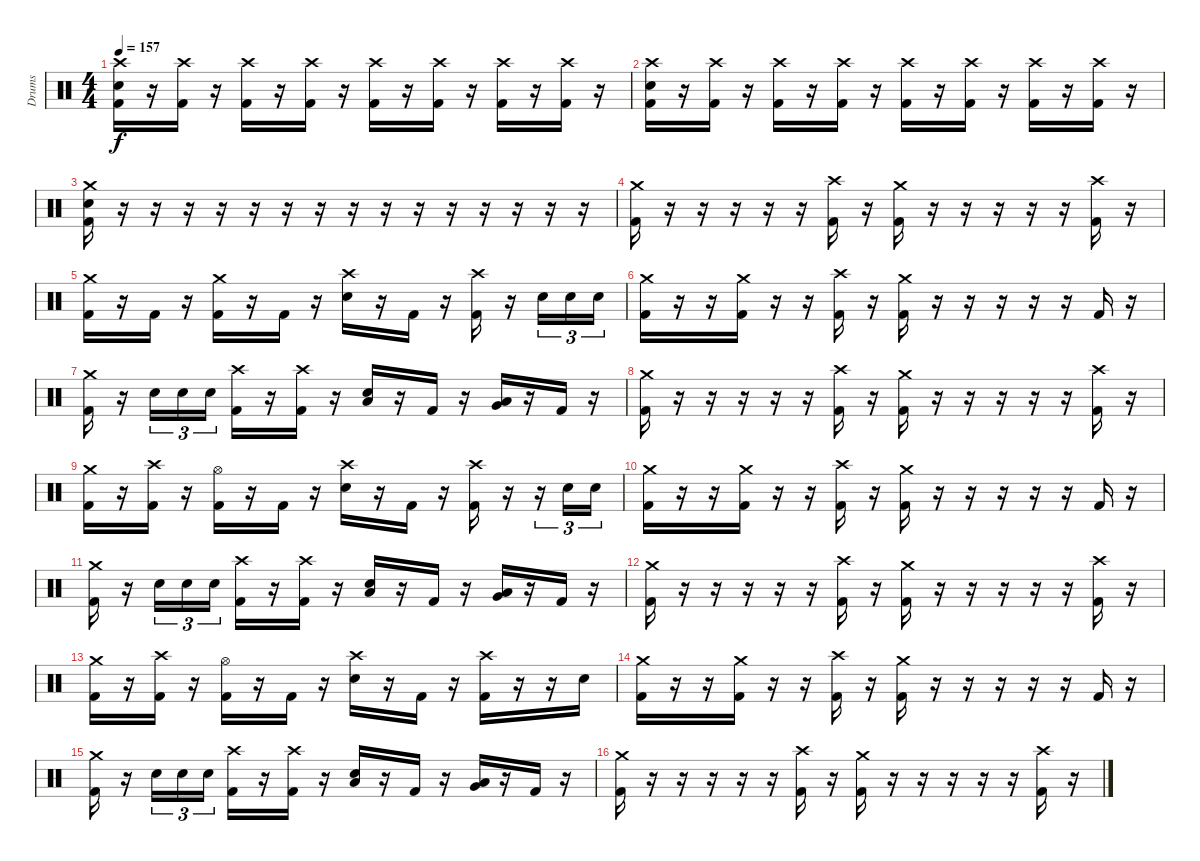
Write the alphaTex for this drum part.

\track ("Drums" "Drums") {instrument percussion}
\staff {score}
\articulation defaults
\ts (4 4)
\tempo 157
\clef neutral
\ks c
("Crash high (hit)" "Snare (hit) 2" "Kick (hit) 2").16{dy f} r.16 ("Crash high (hit)" "Kick (hit) 2").16 r.16 ("Crash high (hit)" "Kick (hit) 2").16 r.16 ("Crash high (hit)" "Kick (hit) 2").16 r.16 ("Crash high (hit)" "Kick (hit) 2").16 r.16 ("Crash high (hit)" "Kick (hit) 2").16 r.16 ("Crash high (hit)" "Kick (hit) 2").16 r.16 ("Crash high (hit)" "Kick (hit) 2").16 r.16 |
("Crash high (hit)" "Snare (hit) 2" "Kick (hit) 2").16 r.16 ("Crash high (hit)" "Kick (hit) 2").16 r.16 ("Crash high (hit)" "Kick (hit) 2").16 r.16 ("Crash high (hit)" "Kick (hit) 2").16 r.16 ("Crash high (hit)" "Kick (hit) 2").16 r.16 ("Crash high (hit)" "Kick (hit) 2").16 r.16 ("Crash high (hit)" "Kick (hit) 2").16 r.16 ("Crash high (hit)" "Kick (hit) 2").16 r.16 |
("Crash medium (hit)" "Snare (hit) 2" "Kick (hit) 2").16 r.16 r.16 r.16 r.16 r.16 r.16 r.16 r.16 r.16 r.16 r.16 r.16 r.16 r.16 r.16 |
("Crash medium (hit)" "Kick (hit) 2").16 r.16 r.16 r.16 r.16 r.16 ("Crash high (hit)" "Kick (hit) 2").16 r.16 ("Crash medium (hit)" "Kick (hit) 2").16 r.16 r.16 r.16 r.16 r.16 ("Crash high (hit)" "Kick (hit) 2").16 r.16 |
("Crash medium (hit)" "Kick (hit) 2").16 r.16 "Kick (hit) 2".16 r.16 ("Crash medium (hit)" "Kick (hit) 2").16 r.16 "Kick (hit) 2".16 r.16 ("Crash high (hit)" "Snare (hit) 2").16 r.16 "Kick (hit) 2".16 r.16 ("Crash high (hit)" "Kick (hit) 2").16 r.16 "Snare (hit) 2".16{tu (3 2)} "Snare (hit) 2".16{tu (3 2)} "Snare (hit) 2".16{tu (3 2)} |
("Crash medium (hit)" "Kick (hit) 2").16 r.16 r.16 ("Crash medium (hit)" "Kick (hit) 2").16 r.16 r.16 ("Crash high (hit)" "Kick (hit) 2").16 r.16 ("Crash medium (hit)" "Kick (hit) 2").16 r.16 r.16 r.16 r.16 r.16 "Kick (hit) 2".16 r.16 |
("Crash medium (hit)" "Kick (hit) 2").16 r.16 "Snare (hit) 2".16{tu (3 2)} "Snare (hit) 2".16{tu (3 2)} "Snare (hit) 2".16{tu (3 2)} ("Crash high (hit)" "Kick (hit) 2").16 r.16 ("Crash high (hit)" "Kick (hit) 2").16 r.16 ("Low Tom (hit)" "Snare (hit) 2").16 r.16 "Kick (hit) 2".16 r.16 ("Very Low Tom (hit)" "Low Tom (hit)").16 r.16 "Kick (hit) 2".16 r.16 |
("Crash medium (hit)" "Kick (hit) 2").16 r.16 r.16 r.16 r.16 r.16 ("Crash high (hit)" "Kick (hit) 2").16 r.16 ("Crash medium (hit)" "Kick (hit) 2").16 r.16 r.16 r.16 r.16 r.16 ("Crash high (hit)" "Kick (hit) 2").16 r.16 |
("Crash medium (hit)" "Kick (hit) 2").16 r.16 ("Crash high (hit)" "Kick (hit) 2").16 r.16 ("Hi-Hat (open)" "Kick (hit) 2").16 r.16 "Kick (hit) 2".16 r.16 ("Crash high (hit)" "Snare (hit) 2").16 r.16 "Kick (hit) 2".16 r.16 ("Crash high (hit)" "Kick (hit) 2").16 r.16 r.16{tu (3 2)} "Snare (hit) 2".16{tu (3 2)} "Snare (hit) 2".16{tu (3 2)} |
("Crash medium (hit)" "Kick (hit) 2").16 r.16 r.16 ("Crash medium (hit)" "Kick (hit) 2").16 r.16 r.16 ("Crash high (hit)" "Kick (hit) 2").16 r.16 ("Crash medium (hit)" "Kick (hit) 2").16 r.16 r.16 r.16 r.16 r.16 "Kick (hit) 2".16 r.16 |
("Crash medium (hit)" "Kick (hit) 2").16 r.16 "Snare (hit) 2".16{tu (3 2)} "Snare (hit) 2".16{tu (3 2)} "Snare (hit) 2".16{tu (3 2)} ("Crash high (hit)" "Kick (hit) 2").16 r.16 ("Crash high (hit)" "Kick (hit) 2").16 r.16 ("Low Tom (hit)" "Snare (hit) 2").16 r.16 "Kick (hit) 2".16 r.16 ("Very Low Tom (hit)" "Low Tom (hit)").16 r.16 "Kick (hit) 2".16 r.16 |
("Crash medium (hit)" "Kick (hit) 2").16 r.16 r.16 r.16 r.16 r.16 ("Crash high (hit)" "Kick (hit) 2").16 r.16 ("Crash medium (hit)" "Kick (hit) 2").16 r.16 r.16 r.16 r.16 r.16 ("Crash high (hit)" "Kick (hit) 2").16 r.16 |
("Crash medium (hit)" "Kick (hit) 2").16 r.16 ("Crash high (hit)" "Kick (hit) 2").16 r.16 ("Hi-Hat (open)" "Kick (hit) 2").16 r.16 "Kick (hit) 2".16 r.16 ("Crash high (hit)" "Snare (hit) 2").16 r.16 "Kick (hit) 2".16 r.16 ("Crash high (hit)" "Kick (hit) 2").16 r.16 r.16 "Snare (hit) 2".16 |
("Crash medium (hit)" "Kick (hit) 2").16 r.16 r.16 ("Crash medium (hit)" "Kick (hit) 2").16 r.16 r.16 ("Crash high (hit)" "Kick (hit) 2").16 r.16 ("Crash medium (hit)" "Kick (hit) 2").16 r.16 r.16 r.16 r.16 r.16 "Kick (hit) 2".16 r.16 |
("Crash medium (hit)" "Kick (hit) 2").16 r.16 "Snare (hit) 2".16{tu (3 2)} "Snare (hit) 2".16{tu (3 2)} "Snare (hit) 2".16{tu (3 2)} ("Crash high (hit)" "Kick (hit) 2").16 r.16 ("Crash high (hit)" "Kick (hit) 2").16 r.16 ("Low Tom (hit)" "Snare (hit) 2").16 r.16 "Kick (hit) 2".16 r.16 ("Very Low Tom (hit)" "Low Tom (hit)").16 r.16 "Kick (hit) 2".16 r.16 |
("Crash medium (hit)" "Kick (hit) 2").16 r.16 r.16 r.16 r.16 r.16 ("Crash high (hit)" "Kick (hit) 2").16 r.16 ("Crash medium (hit)" "Kick (hit) 2").16 r.16 r.16 r.16 r.16 r.16 ("Crash high (hit)" "Kick (hit) 2").16 r.16
